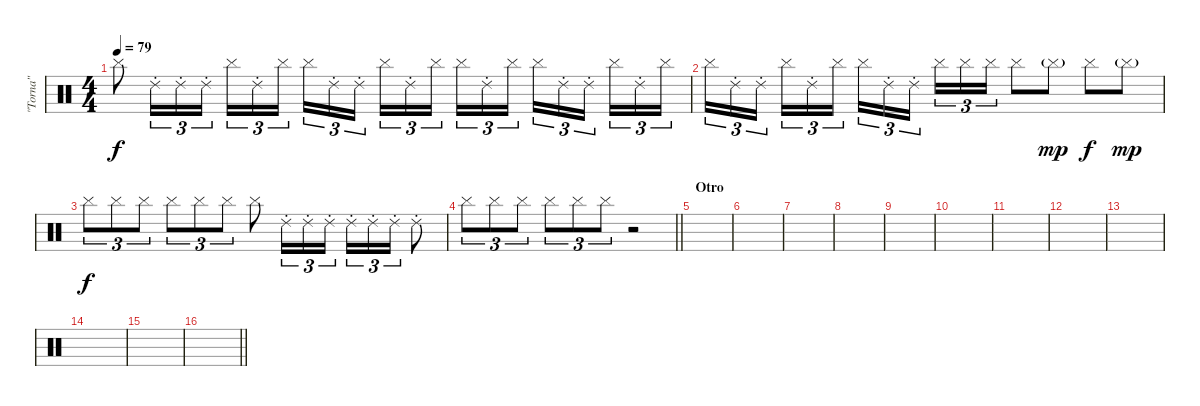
\track ("\"Torna\"" "\"Torna\"") {instrument percussion}
\staff {score}
\articulation defaults
\ts (4 4)
\tempo 79
\clef neutral
\ks c "Cymbal (hit)".8{dy f} "Ride (choke) 2".16{tu (3 2)} "Ride (choke) 2".16{tu (3 2)} "Ride (choke) 2".16{tu (3 2)} "Cymbal (hit)".16{tu (3 2)} "Ride (choke) 2".16{tu (3 2)} "Cymbal (hit)".16{tu (3 2) beam splitsecondary} "Cymbal (hit)".16{tu (3 2)} "Ride (choke) 2".16{tu (3 2)} "Ride (choke) 2".16{tu (3 2)} "Cymbal (hit)".16{tu (3 2)} "Ride (choke) 2".16{tu (3 2)} "Cymbal (hit)".16{tu (3 2) beam splitsecondary} "Cymbal (hit)".16{tu (3 2)} "Ride (choke) 2".16{tu (3 2)} "Cymbal (hit)".16{tu (3 2)} "Cymbal (hit)".16{tu (3 2)} "Ride (choke) 2".16{tu (3 2)} "Ride (choke) 2".16{tu (3 2) beam splitsecondary} "Cymbal (hit)".16{tu (3 2)} "Ride (choke) 2".16{tu (3 2)} "Cymbal (hit)".16{tu (3 2)}
|
"Cymbal (hit)".16{tu (3 2)} "Ride (choke) 2".16{tu (3 2)} "Ride (choke) 2".16{tu (3 2) beam splitsecondary} "Cymbal (hit)".16{tu (3 2)} "Ride (choke) 2".16{tu (3 2)} "Cymbal (hit)".16{tu (3 2)} "Cymbal (hit)".16{tu (3 2)} "Ride (choke) 2".16{tu (3 2)} "Ride (choke) 2".16{tu (3 2) beam splitsecondary} "Cymbal (hit)".16{tu (3 2)} "Cymbal (hit)".16{tu (3 2)} "Cymbal (hit)".16{tu (3 2)} "Cymbal (hit)".8 "Cymbal (hit)"{g}.8{dy mp} "Cymbal (hit)".8{dy f} "Cymbal (hit)"{g}.8{dy mp} |
"Cymbal (hit)".8{tu (3 2) dy f} "Cymbal (hit)".8{tu (3 2)} "Cymbal (hit)".8{tu (3 2)} "Cymbal (hit)".8{tu (3 2)} "Cymbal (hit)".8{tu (3 2)} "Cymbal (hit)".8{tu (3 2)} "Cymbal (hit)".8 "Ride (choke) 2".16{tu (3 2)} "Ride (choke) 2".16{tu (3 2)} "Ride (choke) 2".16{tu (3 2)} "Ride (choke) 2".16{tu (3 2)} "Ride (choke) 2".16{tu (3 2)} "Ride (choke) 2".16{tu (3 2)} "Ride (choke) 2".8 |
\barLineRight lightlight "Cymbal (hit)".8{tu (3 2)} "Cymbal (hit)".8{tu (3 2)} "Cymbal (hit)".8{tu (3 2)} "Cymbal (hit)".8{tu (3 2)} "Cymbal (hit)".8{tu (3 2)} "Cymbal (hit)".8{tu (3 2)}
r.2 |
\section ("" "Otro")
|
|
|
|
|
|
|
|
|
|
|
\barLineRight lightlight
